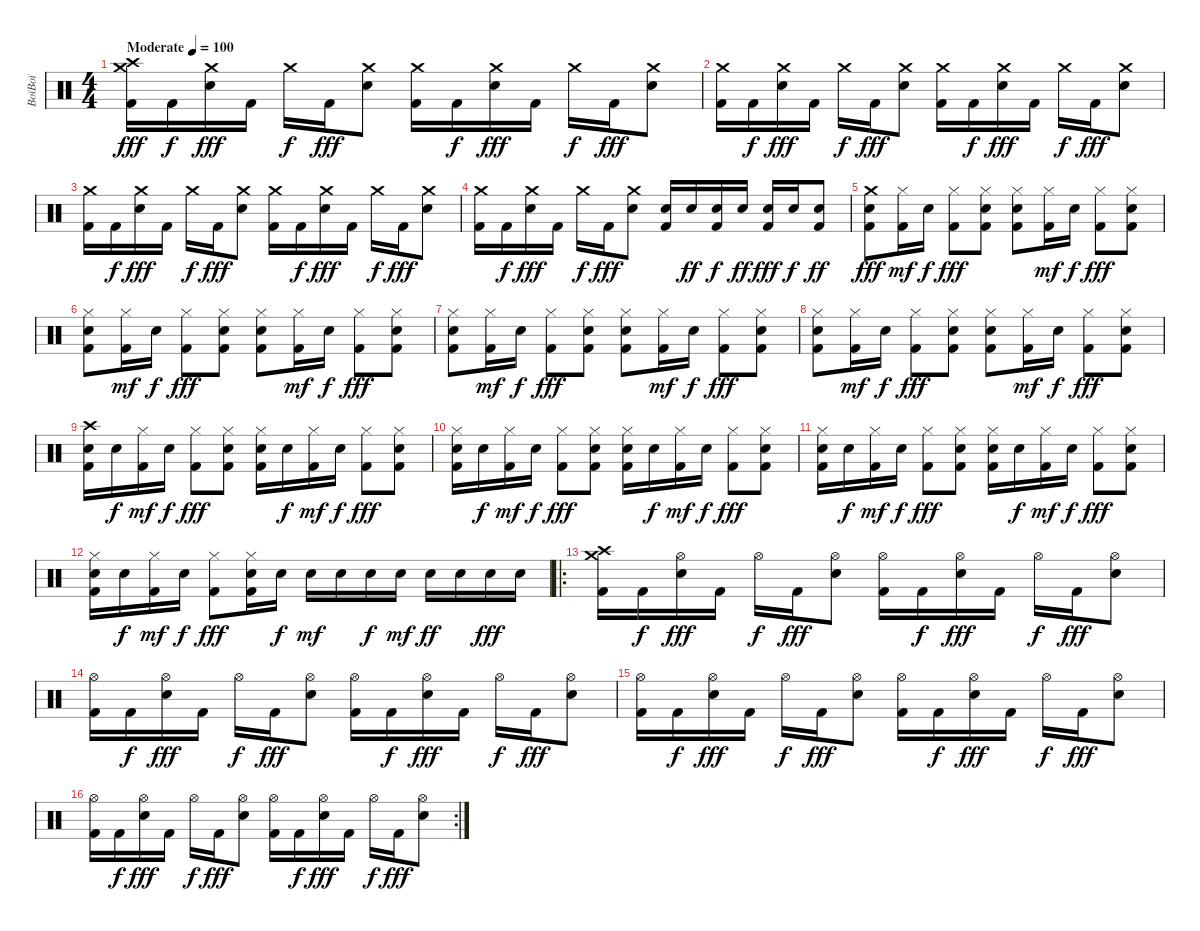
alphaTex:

\track ("BoïBoï" "BoïBoï") {instrument percussion}
\staff {score}
\articulation defaults
\ts (4 4)
\tempo (100 "Moderate")
\clef neutral
\ks c
("Crash medium (hit)" "Crash high (hit)" "Kick (hit) 2").16{dy fff} "Kick (hit) 2".16{dy f} ("Crash medium (hit)" "Electric Snare (hit)").16{dy fff} "Kick (hit) 2".16 "Crash medium (hit)".16{dy f} "Kick (hit) 2".16{dy fff} ("Crash medium (hit)" "Electric Snare (hit)").8 ("Crash medium (hit)" "Kick (hit) 2").16 "Kick (hit) 2".16{dy f} ("Crash medium (hit)" "Electric Snare (hit)").16{dy fff} "Kick (hit) 2".16 "Crash medium (hit)".16{dy f} "Kick (hit) 2".16{dy fff} ("Crash medium (hit)" "Electric Snare (hit)").8 |
("Crash medium (hit)" "Kick (hit) 2").16 "Kick (hit) 2".16{dy f} ("Crash medium (hit)" "Electric Snare (hit)").16{dy fff} "Kick (hit) 2".16 "Crash medium (hit)".16{dy f} "Kick (hit) 2".16{dy fff} ("Crash medium (hit)" "Electric Snare (hit)").8 ("Crash medium (hit)" "Kick (hit) 2").16 "Kick (hit) 2".16{dy f} ("Crash medium (hit)" "Electric Snare (hit)").16{dy fff} "Kick (hit) 2".16 "Crash medium (hit)".16{dy f} "Kick (hit) 2".16{dy fff} ("Crash medium (hit)" "Electric Snare (hit)").8 |
("Crash medium (hit)" "Kick (hit) 2").16 "Kick (hit) 2".16{dy f} ("Crash medium (hit)" "Electric Snare (hit)").16{dy fff} "Kick (hit) 2".16 "Crash medium (hit)".16{dy f} "Kick (hit) 2".16{dy fff} ("Crash medium (hit)" "Electric Snare (hit)").8 ("Crash medium (hit)" "Kick (hit) 2").16 "Kick (hit) 2".16{dy f} ("Crash medium (hit)" "Electric Snare (hit)").16{dy fff} "Kick (hit) 2".16 "Crash medium (hit)".16{dy f} "Kick (hit) 2".16{dy fff} ("Crash medium (hit)" "Electric Snare (hit)").8 |
("Crash medium (hit)" "Kick (hit) 2").16 "Kick (hit) 2".16{dy f} ("Crash medium (hit)" "Electric Snare (hit)").16{dy fff} "Kick (hit) 2".16 "Crash medium (hit)".16{dy f} "Kick (hit) 2".16{dy fff} ("Crash medium (hit)" "Electric Snare (hit)").8 ("Electric Snare (hit)" "Kick (hit) 2").16 "Electric Snare (hit)".16{dy ff} ("Electric Snare (hit)" "Kick (hit) 2").16{dy f} "Electric Snare (hit)".16{dy ff} ("Electric Snare (hit)" "Kick (hit) 2").16{dy fff} "Electric Snare (hit)".16{dy f} ("Electric Snare (hit)" "Kick (hit) 2").8{dy ff} |
("Crash medium (hit)" "Electric Snare (hit)" "Kick (hit) 2").8{dy fff} ("Hi-Hat (closed)" "Kick (hit) 2").16{dy mf} "Electric Snare (hit)".16{dy f} ("Hi-Hat (closed)" "Kick (hit) 2").8{dy fff} ("Hi-Hat (closed)" "Electric Snare (hit)" "Kick (hit) 2").8 ("Hi-Hat (closed)" "Electric Snare (hit)" "Kick (hit) 2").8 ("Hi-Hat (closed)" "Kick (hit) 2").16{dy mf} "Electric Snare (hit)".16{dy f} ("Hi-Hat (closed)" "Kick (hit) 2").8{dy fff} ("Hi-Hat (closed)" "Electric Snare (hit)" "Kick (hit) 2").8 |
("Hi-Hat (closed)" "Electric Snare (hit)" "Kick (hit) 2").8 ("Hi-Hat (closed)" "Kick (hit) 2").16{dy mf} "Electric Snare (hit)".16{dy f} ("Hi-Hat (closed)" "Kick (hit) 2").8{dy fff} ("Hi-Hat (closed)" "Electric Snare (hit)" "Kick (hit) 2").8 ("Hi-Hat (closed)" "Electric Snare (hit)" "Kick (hit) 2").8 ("Hi-Hat (closed)" "Kick (hit) 2").16{dy mf} "Electric Snare (hit)".16{dy f} ("Hi-Hat (closed)" "Kick (hit) 2").8{dy fff} ("Hi-Hat (closed)" "Electric Snare (hit)" "Kick (hit) 2").8 |
("Hi-Hat (closed)" "Electric Snare (hit)" "Kick (hit) 2").8 ("Hi-Hat (closed)" "Kick (hit) 2").16{dy mf} "Electric Snare (hit)".16{dy f} ("Hi-Hat (closed)" "Kick (hit) 2").8{dy fff} ("Hi-Hat (closed)" "Electric Snare (hit)" "Kick (hit) 2").8 ("Hi-Hat (closed)" "Electric Snare (hit)" "Kick (hit) 2").8 ("Hi-Hat (closed)" "Kick (hit) 2").16{dy mf} "Electric Snare (hit)".16{dy f} ("Hi-Hat (closed)" "Kick (hit) 2").8{dy fff} ("Hi-Hat (closed)" "Electric Snare (hit)" "Kick (hit) 2").8 |
("Hi-Hat (closed)" "Electric Snare (hit)" "Kick (hit) 2").8 ("Hi-Hat (closed)" "Kick (hit) 2").16{dy mf} "Electric Snare (hit)".16{dy f} ("Hi-Hat (closed)" "Kick (hit) 2").8{dy fff} ("Hi-Hat (closed)" "Electric Snare (hit)" "Kick (hit) 2").8 ("Hi-Hat (closed)" "Electric Snare (hit)" "Kick (hit) 2").8 ("Hi-Hat (closed)" "Kick (hit) 2").16{dy mf} "Electric Snare (hit)".16{dy f} ("Hi-Hat (closed)" "Kick (hit) 2").8{dy fff} ("Hi-Hat (closed)" "Electric Snare (hit)" "Kick (hit) 2").8 |
("Crash high (hit)" "Electric Snare (hit)" "Kick (hit) 2").16 "Electric Snare (hit)".16{dy f} ("Hi-Hat (closed)" "Kick (hit) 2").16{dy mf} "Electric Snare (hit)".16{dy f} ("Hi-Hat (closed)" "Kick (hit) 2").8{dy fff} ("Hi-Hat (closed)" "Electric Snare (hit)" "Kick (hit) 2").8 ("Hi-Hat (closed)" "Electric Snare (hit)" "Kick (hit) 2").16 "Electric Snare (hit)".16{dy f} ("Hi-Hat (closed)" "Kick (hit) 2").16{dy mf} "Electric Snare (hit)".16{dy f} ("Hi-Hat (closed)" "Kick (hit) 2").8{dy fff} ("Hi-Hat (closed)" "Electric Snare (hit)" "Kick (hit) 2").8 |
("Hi-Hat (closed)" "Electric Snare (hit)" "Kick (hit) 2").16 "Electric Snare (hit)".16{dy f} ("Hi-Hat (closed)" "Kick (hit) 2").16{dy mf} "Electric Snare (hit)".16{dy f} ("Hi-Hat (closed)" "Kick (hit) 2").8{dy fff} ("Hi-Hat (closed)" "Electric Snare (hit)" "Kick (hit) 2").8 ("Hi-Hat (closed)" "Electric Snare (hit)" "Kick (hit) 2").16 "Electric Snare (hit)".16{dy f} ("Hi-Hat (closed)" "Kick (hit) 2").16{dy mf} "Electric Snare (hit)".16{dy f} ("Hi-Hat (closed)" "Kick (hit) 2").8{dy fff} ("Hi-Hat (closed)" "Electric Snare (hit)" "Kick (hit) 2").8 |
("Hi-Hat (closed)" "Electric Snare (hit)" "Kick (hit) 2").16 "Electric Snare (hit)".16{dy f} ("Hi-Hat (closed)" "Kick (hit) 2").16{dy mf} "Electric Snare (hit)".16{dy f} ("Hi-Hat (closed)" "Kick (hit) 2").8{dy fff} ("Hi-Hat (closed)" "Electric Snare (hit)" "Kick (hit) 2").8 ("Hi-Hat (closed)" "Electric Snare (hit)" "Kick (hit) 2").16 "Electric Snare (hit)".16{dy f} ("Hi-Hat (closed)" "Kick (hit) 2").16{dy mf} "Electric Snare (hit)".16{dy f} ("Hi-Hat (closed)" "Kick (hit) 2").8{dy fff} ("Hi-Hat (closed)" "Electric Snare (hit)" "Kick (hit) 2").8 |
("Hi-Hat (closed)" "Electric Snare (hit)" "Kick (hit) 2").16 "Electric Snare (hit)".16{dy f} ("Hi-Hat (closed)" "Kick (hit) 2").16{dy mf} "Electric Snare (hit)".16{dy f} ("Hi-Hat (closed)" "Kick (hit) 2").8{dy fff} ("Hi-Hat (closed)" "Electric Snare (hit)" "Kick (hit) 2").16 "Electric Snare (hit)".16{dy f} "Electric Snare (hit)".16{dy mf} "Electric Snare (hit)".16 "Electric Snare (hit)".16{dy f} "Electric Snare (hit)".16{dy mf} "Electric Snare (hit)".16{dy ff} "Electric Snare (hit)".16 "Electric Snare (hit)".16{dy fff} "Electric Snare (hit)".16 |
\ro
("Crash medium (hit)" "Crash high (hit)" "Kick (hit) 2").16 "Kick (hit) 2".16{dy f} ("Hi-Hat (open)" "Electric Snare (hit)").16{dy fff} "Kick (hit) 2".16 "Hi-Hat (open)".16{dy f} "Kick (hit) 2".16{dy fff} ("Hi-Hat (open)" "Electric Snare (hit)").8 ("Hi-Hat (open)" "Kick (hit) 2").16 "Kick (hit) 2".16{dy f} ("Hi-Hat (open)" "Electric Snare (hit)").16{dy fff} "Kick (hit) 2".16 "Hi-Hat (open)".16{dy f} "Kick (hit) 2".16{dy fff} ("Hi-Hat (open)" "Electric Snare (hit)").8 |
("Hi-Hat (open)" "Kick (hit) 2").16 "Kick (hit) 2".16{dy f} ("Hi-Hat (open)" "Electric Snare (hit)").16{dy fff} "Kick (hit) 2".16 "Hi-Hat (open)".16{dy f} "Kick (hit) 2".16{dy fff} ("Hi-Hat (open)" "Electric Snare (hit)").8 ("Hi-Hat (open)" "Kick (hit) 2").16 "Kick (hit) 2".16{dy f} ("Hi-Hat (open)" "Electric Snare (hit)").16{dy fff} "Kick (hit) 2".16 "Hi-Hat (open)".16{dy f} "Kick (hit) 2".16{dy fff} ("Hi-Hat (open)" "Electric Snare (hit)").8 |
("Hi-Hat (open)" "Kick (hit) 2").16 "Kick (hit) 2".16{dy f} ("Hi-Hat (open)" "Electric Snare (hit)").16{dy fff} "Kick (hit) 2".16 "Hi-Hat (open)".16{dy f} "Kick (hit) 2".16{dy fff} ("Hi-Hat (open)" "Electric Snare (hit)").8 ("Hi-Hat (open)" "Kick (hit) 2").16 "Kick (hit) 2".16{dy f} ("Hi-Hat (open)" "Electric Snare (hit)").16{dy fff} "Kick (hit) 2".16 "Hi-Hat (open)".16{dy f} "Kick (hit) 2".16{dy fff} ("Hi-Hat (open)" "Electric Snare (hit)").8 |
\rc 2
("Hi-Hat (open)" "Kick (hit) 2").16 "Kick (hit) 2".16{dy f} ("Hi-Hat (open)" "Electric Snare (hit)").16{dy fff} "Kick (hit) 2".16 "Hi-Hat (open)".16{dy f} "Kick (hit) 2".16{dy fff} ("Hi-Hat (open)" "Electric Snare (hit)").8 ("Hi-Hat (open)" "Kick (hit) 2").16 "Kick (hit) 2".16{dy f} ("Hi-Hat (open)" "Electric Snare (hit)").16{dy fff} "Kick (hit) 2".16 "Hi-Hat (open)".16{dy f} "Kick (hit) 2".16{dy fff} ("Hi-Hat (open)" "Electric Snare (hit)").8
